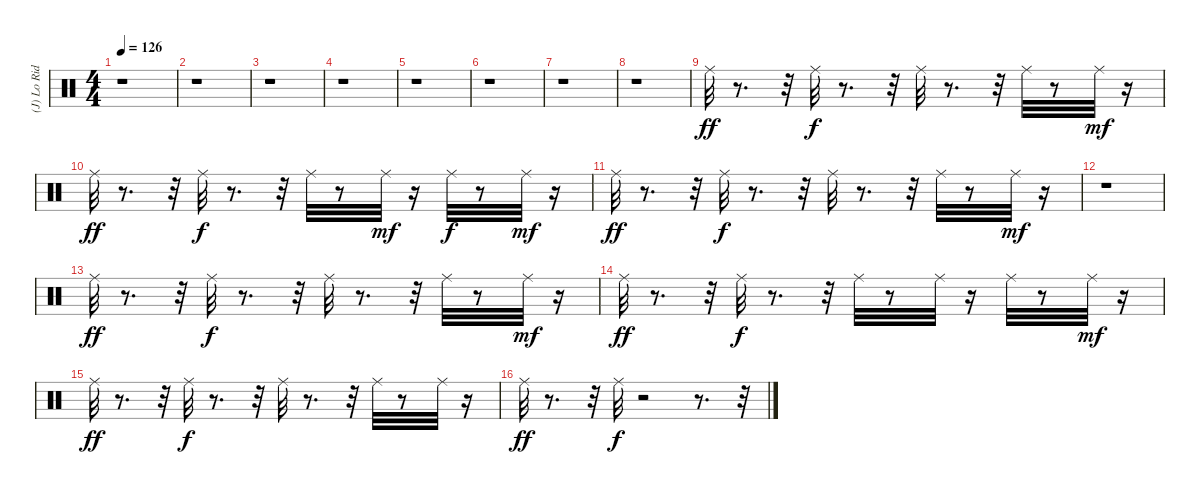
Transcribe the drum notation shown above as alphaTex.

\track ("(J) Lo Ride Cymbal" "(J) Lo Rid") {instrument percussion}
\staff {score}
\articulation defaults
\ts (4 4)
\tempo 126
\clef neutral
\ks c
r.1{dy ff} |
r.1 |
r.1 |
r.1 |
r.1 |
r.1 |
r.1 |
r.1 |
"Ride (middle)".32 r.8{d} r.32 "Ride (middle)".32{dy f} r.8{d} r.32 "Ride (middle)".32 r.8{d} r.32 "Ride (middle)".32 r.8 "Ride (middle)".32{dy mf} r.16 |
"Ride (middle)".32{dy ff} r.8{d} r.32 "Ride (middle)".32{dy f} r.8{d} r.32 "Ride (middle)".32 r.8 "Ride (middle)".32{dy mf} r.16 "Ride (middle)".32{dy f} r.8 "Ride (middle)".32{dy mf} r.16 |
"Ride (middle)".32{dy ff} r.8{d} r.32 "Ride (middle)".32{dy f} r.8{d} r.32 "Ride (middle)".32 r.8{d} r.32 "Ride (middle)".32 r.8 "Ride (middle)".32{dy mf} r.16 |
r.1 |
"Ride (middle)".32{dy ff} r.8{d} r.32 "Ride (middle)".32{dy f} r.8{d} r.32 "Ride (middle)".32 r.8{d} r.32 "Ride (middle)".32 r.8 "Ride (middle)".32{dy mf} r.16 |
"Ride (middle)".32{dy ff} r.8{d} r.32 "Ride (middle)".32{dy f} r.8{d} r.32 "Ride (middle)".32 r.8 "Ride (middle)".32 r.16 "Ride (middle)".32 r.8 "Ride (middle)".32{dy mf} r.16 |
"Ride (middle)".32{dy ff} r.8{d} r.32 "Ride (middle)".32{dy f} r.8{d} r.32 "Ride (middle)".32 r.8{d} r.32 "Ride (middle)".32 r.8 "Ride (middle)".32 r.16 |
"Ride (middle)".32{dy ff} r.8{d} r.32 "Ride (middle)".32{dy f} r.2 r.8{d} r.32
